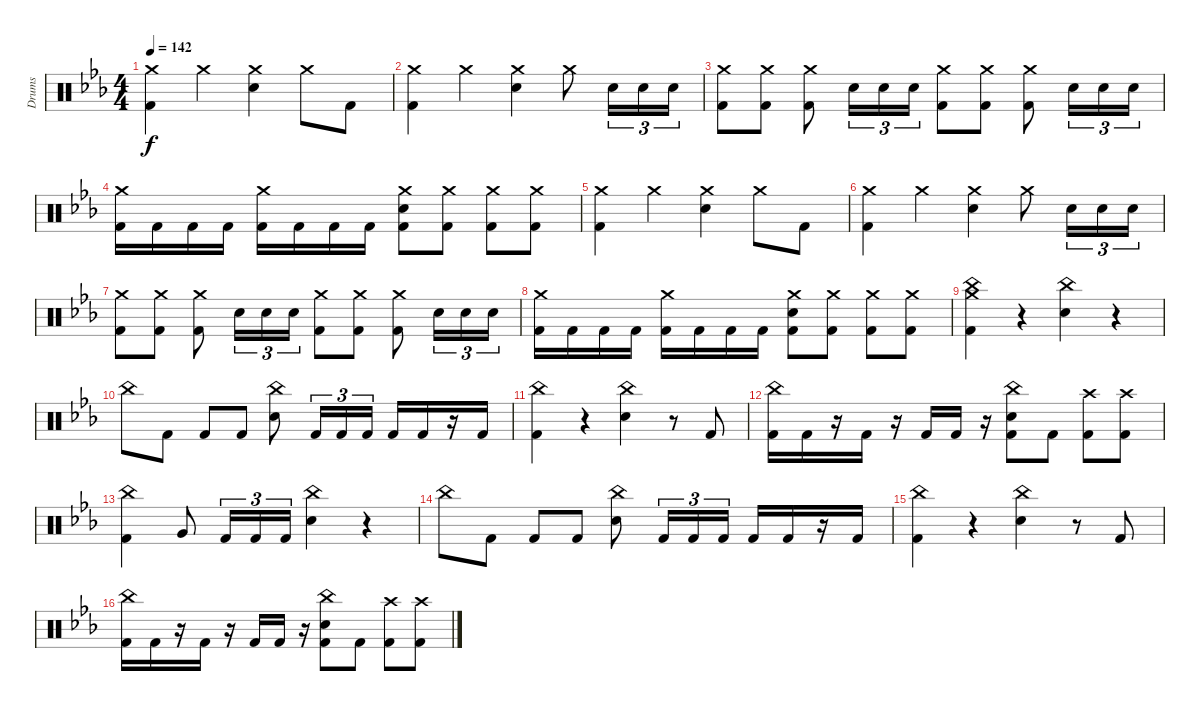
\track ("Drums" "Drums") {instrument percussion}
\staff {score}
\articulation defaults
\ts (4 4)
\tempo 142
\clef neutral
\ks cminor
("Crash medium (hit)" "Kick (hit) 2").4{dy f} "Crash medium (hit)".4 ("Crash medium (hit)" "Electric Snare (hit)").4 "Crash medium (hit)".8 "Kick (hit) 2".8 |
("Crash medium (hit)" "Kick (hit) 2").4 "Crash medium (hit)".4 ("Crash medium (hit)" "Electric Snare (hit)").4 "Crash medium (hit)".8 "Electric Snare (hit)".16{tu (3 2)} "Electric Snare (hit)".16{tu (3 2)} "Electric Snare (hit)".16{tu (3 2)} |
("Crash medium (hit)" "Kick (hit) 2").8 ("Crash medium (hit)" "Kick (hit) 2").8 ("Crash medium (hit)" "Kick (hit) 2").8 "Electric Snare (hit)".16{tu (3 2)} "Electric Snare (hit)".16{tu (3 2)} "Electric Snare (hit)".16{tu (3 2)} ("Crash medium (hit)" "Kick (hit) 2").8 ("Crash medium (hit)" "Kick (hit) 2").8 ("Crash medium (hit)" "Kick (hit) 2").8 "Electric Snare (hit)".16{tu (3 2)} "Electric Snare (hit)".16{tu (3 2)} "Electric Snare (hit)".16{tu (3 2)} |
("Crash medium (hit)" "Kick (hit) 2").16 "Kick (hit) 2".16 "Kick (hit) 2".16 "Kick (hit) 2".16 ("Crash medium (hit)" "Kick (hit) 2").16 "Kick (hit) 2".16 "Kick (hit) 2".16 "Kick (hit) 2".16 ("Crash medium (hit)" "Electric Snare (hit)" "Kick (hit) 2").8 ("Crash medium (hit)" "Kick (hit) 2").8 ("Crash medium (hit)" "Kick (hit) 2").8 ("Crash medium (hit)" "Kick (hit) 2").8 |
("Crash medium (hit)" "Kick (hit) 2").4 "Crash medium (hit)".4 ("Crash medium (hit)" "Electric Snare (hit)").4 "Crash medium (hit)".8 "Kick (hit) 2".8 |
("Crash medium (hit)" "Kick (hit) 2").4 "Crash medium (hit)".4 ("Crash medium (hit)" "Electric Snare (hit)").4 "Crash medium (hit)".8 "Electric Snare (hit)".16{tu (3 2)} "Electric Snare (hit)".16{tu (3 2)} "Electric Snare (hit)".16{tu (3 2)} |
("Crash medium (hit)" "Kick (hit) 2").8 ("Crash medium (hit)" "Kick (hit) 2").8 ("Crash medium (hit)" "Kick (hit) 2").8 "Electric Snare (hit)".16{tu (3 2)} "Electric Snare (hit)".16{tu (3 2)} "Electric Snare (hit)".16{tu (3 2)} ("Crash medium (hit)" "Kick (hit) 2").8 ("Crash medium (hit)" "Kick (hit) 2").8 ("Crash medium (hit)" "Kick (hit) 2").8 "Electric Snare (hit)".16{tu (3 2)} "Electric Snare (hit)".16{tu (3 2)} "Electric Snare (hit)".16{tu (3 2)} |
("Crash medium (hit)" "Kick (hit) 2").16 "Kick (hit) 2".16 "Kick (hit) 2".16 "Kick (hit) 2".16 ("Crash medium (hit)" "Kick (hit) 2").16 "Kick (hit) 2".16 "Kick (hit) 2".16 "Kick (hit) 2".16 ("Crash medium (hit)" "Electric Snare (hit)" "Kick (hit) 2").8 ("Crash medium (hit)" "Kick (hit) 2").8 ("Crash medium (hit)" "Kick (hit) 2").8 ("Crash medium (hit)" "Kick (hit) 2").8 |
("Crash medium (hit)" "China (hit)" "Kick (hit) 2").4 r.4 ("China (hit)" "Electric Snare (hit)").4 r.4 |
"China (hit)".8 "Kick (hit) 2".8 "Kick (hit) 2".8 "Kick (hit) 2".8 ("China (hit)" "Electric Snare (hit)").8 "Kick (hit) 2".16{tu (3 2)} "Kick (hit) 2".16{tu (3 2)} "Kick (hit) 2".16{tu (3 2)} "Kick (hit) 2".16 "Kick (hit) 2".16 r.16 "Kick (hit) 2".16 |
("China (hit)" "Kick (hit) 2").4 r.4 ("China (hit)" "Electric Snare (hit)").4 r.8 "Kick (hit) 2".8 |
("China (hit)" "Kick (hit) 2").16 "Kick (hit) 2".16 r.16 "Kick (hit) 2".16 r.16 "Kick (hit) 2".16 "Kick (hit) 2".16 r.16 ("China (hit)" "Electric Snare (hit)" "Kick (hit) 2").8 "Kick (hit) 2".8 ("Crash high (hit)" "Kick (hit) 2").8 ("Crash high (hit)" "Kick (hit) 2").8 |
("China (hit)" "Kick (hit) 2").4 "Very Low Tom (hit)".8 "Kick (hit) 2".16{tu (3 2)} "Kick (hit) 2".16{tu (3 2)} "Kick (hit) 2".16{tu (3 2)} ("China (hit)" "Electric Snare (hit)").4 r.4 |
"China (hit)".8 "Kick (hit) 2".8 "Kick (hit) 2".8 "Kick (hit) 2".8 ("China (hit)" "Electric Snare (hit)").8 "Kick (hit) 2".16{tu (3 2)} "Kick (hit) 2".16{tu (3 2)} "Kick (hit) 2".16{tu (3 2)} "Kick (hit) 2".16 "Kick (hit) 2".16 r.16 "Kick (hit) 2".16 |
("China (hit)" "Kick (hit) 2").4 r.4 ("China (hit)" "Electric Snare (hit)").4 r.8 "Kick (hit) 2".8 |
("China (hit)" "Kick (hit) 2").16 "Kick (hit) 2".16 r.16 "Kick (hit) 2".16 r.16 "Kick (hit) 2".16 "Kick (hit) 2".16 r.16 ("China (hit)" "Electric Snare (hit)" "Kick (hit) 2").8 "Kick (hit) 2".8 ("Crash high (hit)" "Kick (hit) 2").8 ("Crash high (hit)" "Kick (hit) 2").8
